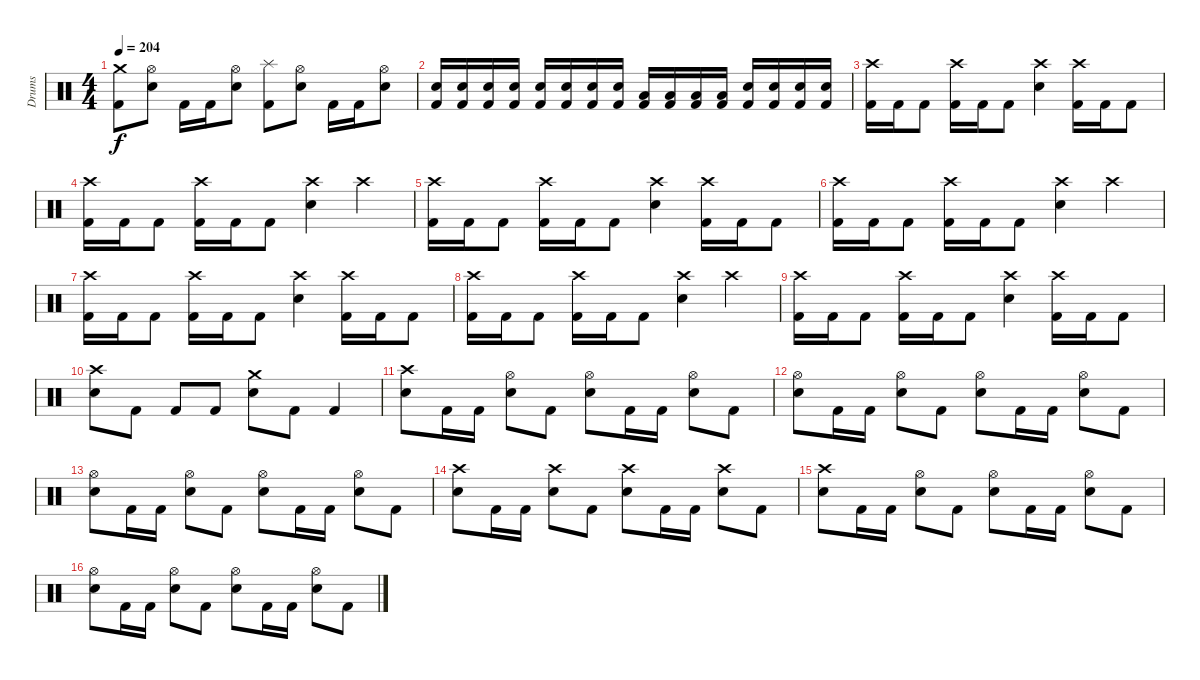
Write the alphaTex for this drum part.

\track ("Drums" "Drums") {instrument percussion}
\staff {score}
\articulation defaults
\ts (4 4)
\tempo 204
\clef neutral
\ks c
("Crash medium (hit)" "Kick (hit) 2").8{dy f} ("Hi-Hat (open)" "Electric Snare (hit)").8 "Kick (hit) 2".16 "Kick (hit) 2".16 ("Hi-Hat (open)" "Electric Snare (hit)").8 ("Splash (hit)" "Kick (hit) 2").8 ("Hi-Hat (open)" "Electric Snare (hit)").8 "Kick (hit) 2".16 "Kick (hit) 2".16 ("Hi-Hat (open)" "Electric Snare (hit)").8 |
("Electric Snare (hit)" "Kick (hit) 2").16 ("Electric Snare (hit)" "Kick (hit) 2").16 ("Electric Snare (hit)" "Kick (hit) 2").16 ("Electric Snare (hit)" "Kick (hit) 2").16 ("Electric Snare (hit)" "Kick (hit) 2").16 ("Electric Snare (hit)" "Kick (hit) 2").16 ("Electric Snare (hit)" "Kick (hit) 2").16 ("Electric Snare (hit)" "Kick (hit) 2").16 ("Low Tom (hit)" "Kick (hit) 2").16 ("Low Tom (hit)" "Kick (hit) 2").16 ("Low Tom (hit)" "Kick (hit) 2").16 ("Low Tom (hit)" "Kick (hit) 2").16 ("Electric Snare (hit)" "Kick (hit) 2").16 ("Electric Snare (hit)" "Kick (hit) 2").16 ("Electric Snare (hit)" "Kick (hit) 2").16 ("Electric Snare (hit)" "Kick (hit) 2").16 |
("Crash high (hit)" "Kick (hit) 2").16 "Kick (hit) 2".16 "Kick (hit) 2".8 ("Crash high (hit)" "Kick (hit) 2").16 "Kick (hit) 2".16 "Kick (hit) 2".8 ("Crash high (hit)" "Electric Snare (hit)").4 ("Crash high (hit)" "Kick (hit) 2").16 "Kick (hit) 2".16 "Kick (hit) 2".8 |
("Crash high (hit)" "Kick (hit) 2").16 "Kick (hit) 2".16 "Kick (hit) 2".8 ("Crash high (hit)" "Kick (hit) 2").16 "Kick (hit) 2".16 "Kick (hit) 2".8 ("Crash high (hit)" "Electric Snare (hit)").4 "Crash high (hit)".4 |
("Crash high (hit)" "Kick (hit) 2").16 "Kick (hit) 2".16 "Kick (hit) 2".8 ("Crash high (hit)" "Kick (hit) 2").16 "Kick (hit) 2".16 "Kick (hit) 2".8 ("Crash high (hit)" "Electric Snare (hit)").4 ("Crash high (hit)" "Kick (hit) 2").16 "Kick (hit) 2".16 "Kick (hit) 2".8 |
("Crash high (hit)" "Kick (hit) 2").16 "Kick (hit) 2".16 "Kick (hit) 2".8 ("Crash high (hit)" "Kick (hit) 2").16 "Kick (hit) 2".16 "Kick (hit) 2".8 ("Crash high (hit)" "Electric Snare (hit)").4 "Crash high (hit)".4 |
("Crash high (hit)" "Kick (hit) 2").16 "Kick (hit) 2".16 "Kick (hit) 2".8 ("Crash high (hit)" "Kick (hit) 2").16 "Kick (hit) 2".16 "Kick (hit) 2".8 ("Crash high (hit)" "Electric Snare (hit)").4 ("Crash high (hit)" "Kick (hit) 2").16 "Kick (hit) 2".16 "Kick (hit) 2".8 |
("Crash high (hit)" "Kick (hit) 2").16 "Kick (hit) 2".16 "Kick (hit) 2".8 ("Crash high (hit)" "Kick (hit) 2").16 "Kick (hit) 2".16 "Kick (hit) 2".8 ("Crash high (hit)" "Electric Snare (hit)").4 "Crash high (hit)".4 |
("Crash high (hit)" "Kick (hit) 2").16 "Kick (hit) 2".16 "Kick (hit) 2".8 ("Crash high (hit)" "Kick (hit) 2").16 "Kick (hit) 2".16 "Kick (hit) 2".8 ("Crash high (hit)" "Electric Snare (hit)").4 ("Crash high (hit)" "Kick (hit) 2").16 "Kick (hit) 2".16 "Kick (hit) 2".8 |
("Crash high (hit)" "Electric Snare (hit)").8 "Kick (hit) 2".8 "Kick (hit) 2".8 "Kick (hit) 2".8 ("Crash medium (hit)" "Electric Snare (hit)").8 "Kick (hit) 2".8 "Kick (hit) 2".4 |
("Crash high (hit)" "Electric Snare (hit)").8 "Kick (hit) 2".16 "Kick (hit) 2".16 ("Hi-Hat (open)" "Electric Snare (hit)").8 "Kick (hit) 2".8 ("Hi-Hat (open)" "Electric Snare (hit)").8 "Kick (hit) 2".16 "Kick (hit) 2".16 ("Hi-Hat (open)" "Electric Snare (hit)").8 "Kick (hit) 2".8 |
("Hi-Hat (open)" "Electric Snare (hit)").8 "Kick (hit) 2".16 "Kick (hit) 2".16 ("Hi-Hat (open)" "Electric Snare (hit)").8 "Kick (hit) 2".8 ("Hi-Hat (open)" "Electric Snare (hit)").8 "Kick (hit) 2".16 "Kick (hit) 2".16 ("Hi-Hat (open)" "Electric Snare (hit)").8 "Kick (hit) 2".8 |
("Hi-Hat (open)" "Electric Snare (hit)").8 "Kick (hit) 2".16 "Kick (hit) 2".16 ("Hi-Hat (open)" "Electric Snare (hit)").8 "Kick (hit) 2".8 ("Hi-Hat (open)" "Electric Snare (hit)").8 "Kick (hit) 2".16 "Kick (hit) 2".16 ("Hi-Hat (open)" "Electric Snare (hit)").8 "Kick (hit) 2".8 |
("Crash high (hit)" "Electric Snare (hit)").8 "Kick (hit) 2".16 "Kick (hit) 2".16 ("Crash high (hit)" "Electric Snare (hit)").8 "Kick (hit) 2".8 ("Crash high (hit)" "Electric Snare (hit)").8 "Kick (hit) 2".16 "Kick (hit) 2".16 ("Crash high (hit)" "Electric Snare (hit)").8 "Kick (hit) 2".8 |
("Crash high (hit)" "Electric Snare (hit)").8 "Kick (hit) 2".16 "Kick (hit) 2".16 ("Hi-Hat (open)" "Electric Snare (hit)").8 "Kick (hit) 2".8 ("Hi-Hat (open)" "Electric Snare (hit)").8 "Kick (hit) 2".16 "Kick (hit) 2".16 ("Hi-Hat (open)" "Electric Snare (hit)").8 "Kick (hit) 2".8 |
("Hi-Hat (open)" "Electric Snare (hit)").8 "Kick (hit) 2".16 "Kick (hit) 2".16 ("Hi-Hat (open)" "Electric Snare (hit)").8 "Kick (hit) 2".8 ("Hi-Hat (open)" "Electric Snare (hit)").8 "Kick (hit) 2".16 "Kick (hit) 2".16 ("Hi-Hat (open)" "Electric Snare (hit)").8 "Kick (hit) 2".8
